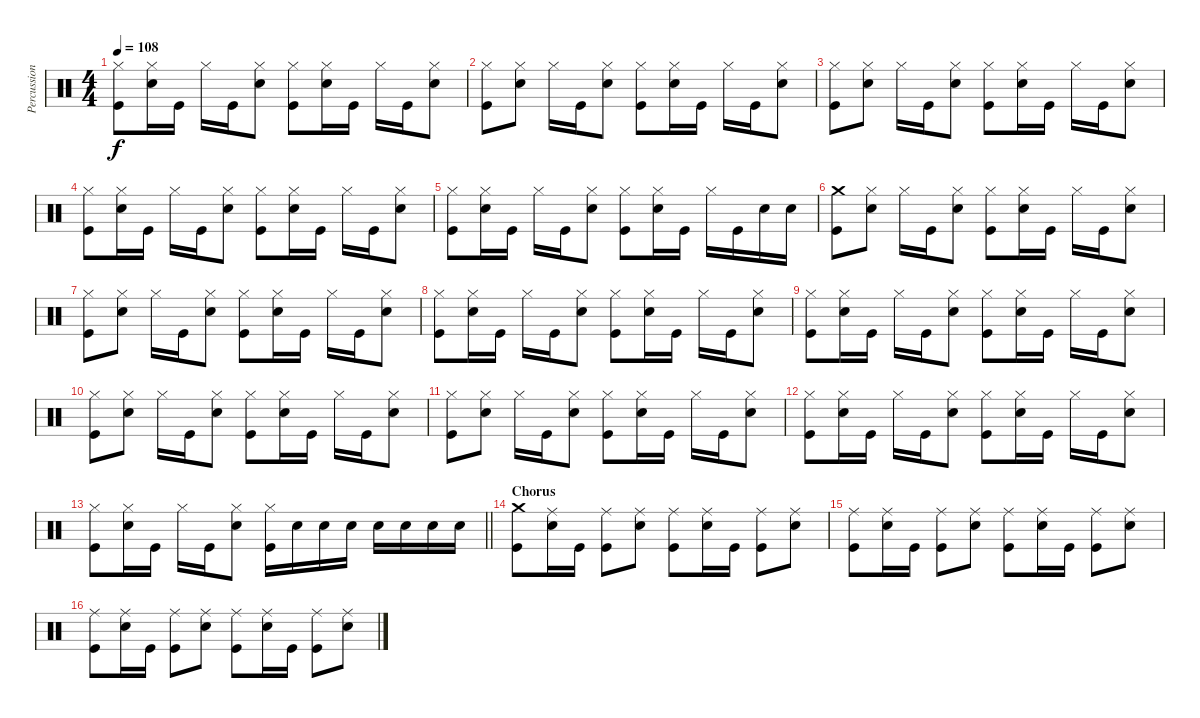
\track ("Percussion" "Percussion") {instrument percussion}
\staff {score}
\articulation defaults
\ts (4 4)
\tempo 108
\clef neutral
\ks c
("Kick (hit)" "Hi-Hat (closed)").8{dy f} ("Hi-Hat (closed)" "Snare (hit) 2").16 "Kick (hit)".16 "Hi-Hat (closed)".16 "Kick (hit)".16 ("Hi-Hat (closed)" "Snare (hit) 2").8 ("Kick (hit)" "Hi-Hat (closed)").8 ("Hi-Hat (closed)" "Snare (hit) 2").16 "Kick (hit)".16 "Hi-Hat (closed)".16 "Kick (hit)".16 ("Hi-Hat (closed)" "Snare (hit) 2").8 |
("Kick (hit)" "Hi-Hat (closed)").8 ("Hi-Hat (closed)" "Snare (hit) 2").8 "Hi-Hat (closed)".16 "Kick (hit)".16 ("Hi-Hat (closed)" "Snare (hit) 2").8 ("Kick (hit)" "Hi-Hat (closed)").8 ("Hi-Hat (closed)" "Snare (hit) 2").16 "Kick (hit)".16 "Hi-Hat (closed)".16 "Kick (hit)".16 ("Hi-Hat (closed)" "Snare (hit) 2").8 |
("Kick (hit)" "Hi-Hat (closed)").8 ("Hi-Hat (closed)" "Snare (hit) 2").8 "Hi-Hat (closed)".16 "Kick (hit)".16 ("Hi-Hat (closed)" "Snare (hit) 2").8 ("Kick (hit)" "Hi-Hat (closed)").8 ("Hi-Hat (closed)" "Snare (hit) 2").16 "Kick (hit)".16 "Hi-Hat (closed)".16 "Kick (hit)".16 ("Hi-Hat (closed)" "Snare (hit) 2").8 |
("Kick (hit)" "Hi-Hat (closed)").8 ("Hi-Hat (closed)" "Snare (hit) 2").16 "Kick (hit)".16 "Hi-Hat (closed)".16 "Kick (hit)".16 ("Hi-Hat (closed)" "Snare (hit) 2").8 ("Kick (hit)" "Hi-Hat (closed)").8 ("Hi-Hat (closed)" "Snare (hit) 2").16 "Kick (hit)".16 "Hi-Hat (closed)".16 "Kick (hit)".16 ("Hi-Hat (closed)" "Snare (hit) 2").8 |
("Kick (hit)" "Hi-Hat (closed)").8 ("Hi-Hat (closed)" "Snare (hit) 2").16 "Kick (hit)".16 "Hi-Hat (closed)".16 "Kick (hit)".16 ("Hi-Hat (closed)" "Snare (hit) 2").8 ("Kick (hit)" "Hi-Hat (closed)").8 ("Hi-Hat (closed)" "Snare (hit) 2").16 "Kick (hit)".16 "Hi-Hat (closed)".16 "Kick (hit)".16 "Snare (hit) 2".16 "Snare (hit) 2".16 |
("Kick (hit)" "Crash medium (hit)").8 ("Hi-Hat (closed)" "Snare (hit) 2").8 "Hi-Hat (closed)".16 "Kick (hit)".16 ("Hi-Hat (closed)" "Snare (hit) 2").8 ("Kick (hit)" "Hi-Hat (closed)").8 ("Hi-Hat (closed)" "Snare (hit) 2").16 "Kick (hit)".16 "Hi-Hat (closed)".16 "Kick (hit)".16 ("Hi-Hat (closed)" "Snare (hit) 2").8 |
("Kick (hit)" "Hi-Hat (closed)").8 ("Hi-Hat (closed)" "Snare (hit) 2").8 "Hi-Hat (closed)".16 "Kick (hit)".16 ("Hi-Hat (closed)" "Snare (hit) 2").8 ("Kick (hit)" "Hi-Hat (closed)").8 ("Hi-Hat (closed)" "Snare (hit) 2").16 "Kick (hit)".16 "Hi-Hat (closed)".16 "Kick (hit)".16 ("Hi-Hat (closed)" "Snare (hit) 2").8 |
("Kick (hit)" "Hi-Hat (closed)").8 ("Hi-Hat (closed)" "Snare (hit) 2").16 "Kick (hit)".16 "Hi-Hat (closed)".16 "Kick (hit)".16 ("Hi-Hat (closed)" "Snare (hit) 2").8 ("Kick (hit)" "Hi-Hat (closed)").8 ("Hi-Hat (closed)" "Snare (hit) 2").16 "Kick (hit)".16 "Hi-Hat (closed)".16 "Kick (hit)".16 ("Hi-Hat (closed)" "Snare (hit) 2").8 |
("Kick (hit)" "Hi-Hat (closed)").8 ("Hi-Hat (closed)" "Snare (hit) 2").16 "Kick (hit)".16 "Hi-Hat (closed)".16 "Kick (hit)".16 ("Hi-Hat (closed)" "Snare (hit) 2").8 ("Kick (hit)" "Hi-Hat (closed)").8 ("Hi-Hat (closed)" "Snare (hit) 2").16 "Kick (hit)".16 "Hi-Hat (closed)".16 "Kick (hit)".16 ("Hi-Hat (closed)" "Snare (hit) 2").8 |
("Kick (hit)" "Hi-Hat (closed)").8 ("Hi-Hat (closed)" "Snare (hit) 2").8 "Hi-Hat (closed)".16 "Kick (hit)".16 ("Hi-Hat (closed)" "Snare (hit) 2").8 ("Kick (hit)" "Hi-Hat (closed)").8 ("Hi-Hat (closed)" "Snare (hit) 2").16 "Kick (hit)".16 "Hi-Hat (closed)".16 "Kick (hit)".16 ("Hi-Hat (closed)" "Snare (hit) 2").8 |
("Kick (hit)" "Hi-Hat (closed)").8 ("Hi-Hat (closed)" "Snare (hit) 2").8 "Hi-Hat (closed)".16 "Kick (hit)".16 ("Hi-Hat (closed)" "Snare (hit) 2").8 ("Kick (hit)" "Hi-Hat (closed)").8 ("Hi-Hat (closed)" "Snare (hit) 2").16 "Kick (hit)".16 "Hi-Hat (closed)".16 "Kick (hit)".16 ("Hi-Hat (closed)" "Snare (hit) 2").8 |
("Kick (hit)" "Hi-Hat (closed)").8 ("Hi-Hat (closed)" "Snare (hit) 2").16 "Kick (hit)".16 "Hi-Hat (closed)".16 "Kick (hit)".16 ("Hi-Hat (closed)" "Snare (hit) 2").8 ("Kick (hit)" "Hi-Hat (closed)").8 ("Hi-Hat (closed)" "Snare (hit) 2").16 "Kick (hit)".16 "Hi-Hat (closed)".16 "Kick (hit)".16 ("Hi-Hat (closed)" "Snare (hit) 2").8 |
\barLineRight lightlight
("Kick (hit)" "Hi-Hat (closed)").8 ("Hi-Hat (closed)" "Snare (hit) 2").16 "Kick (hit)".16 "Hi-Hat (closed)".16 "Kick (hit)".16 ("Hi-Hat (closed)" "Snare (hit) 2").8 ("Kick (hit)" "Hi-Hat (closed)").16 "Snare (hit) 2".16 "Snare (hit) 2".16 "Snare (hit) 2".16 "Snare (hit) 2".16 "Snare (hit) 2".16 "Snare (hit) 2".16 "Snare (hit) 2".16 |
\section ("" "Chorus")
("Kick (hit)" "Crash medium (hit)").8 ("Ride (middle)" "Snare (hit) 2").16 "Kick (hit)".16 ("Kick (hit)" "Ride (middle)").8 ("Ride (middle)" "Snare (hit) 2").8 ("Kick (hit)" "Ride (middle)").8 ("Ride (middle)" "Snare (hit) 2").16 "Kick (hit)".16 ("Kick (hit)" "Ride (middle)").8 ("Ride (middle)" "Snare (hit) 2").8 |
("Kick (hit)" "Ride (middle)").8 ("Ride (middle)" "Snare (hit) 2").16 "Kick (hit)".16 ("Kick (hit)" "Ride (middle)").8 ("Ride (middle)" "Snare (hit) 2").8 ("Kick (hit)" "Ride (middle)").8 ("Ride (middle)" "Snare (hit) 2").16 "Kick (hit)".16 ("Kick (hit)" "Ride (middle)").8 ("Ride (middle)" "Snare (hit) 2").8 |
("Kick (hit)" "Ride (middle)").8 ("Ride (middle)" "Snare (hit) 2").16 "Kick (hit)".16 ("Kick (hit)" "Ride (middle)").8 ("Ride (middle)" "Snare (hit) 2").8 ("Kick (hit)" "Ride (middle)").8 ("Ride (middle)" "Snare (hit) 2").16 "Kick (hit)".16 ("Kick (hit)" "Ride (middle)").8 ("Ride (middle)" "Snare (hit) 2").8
